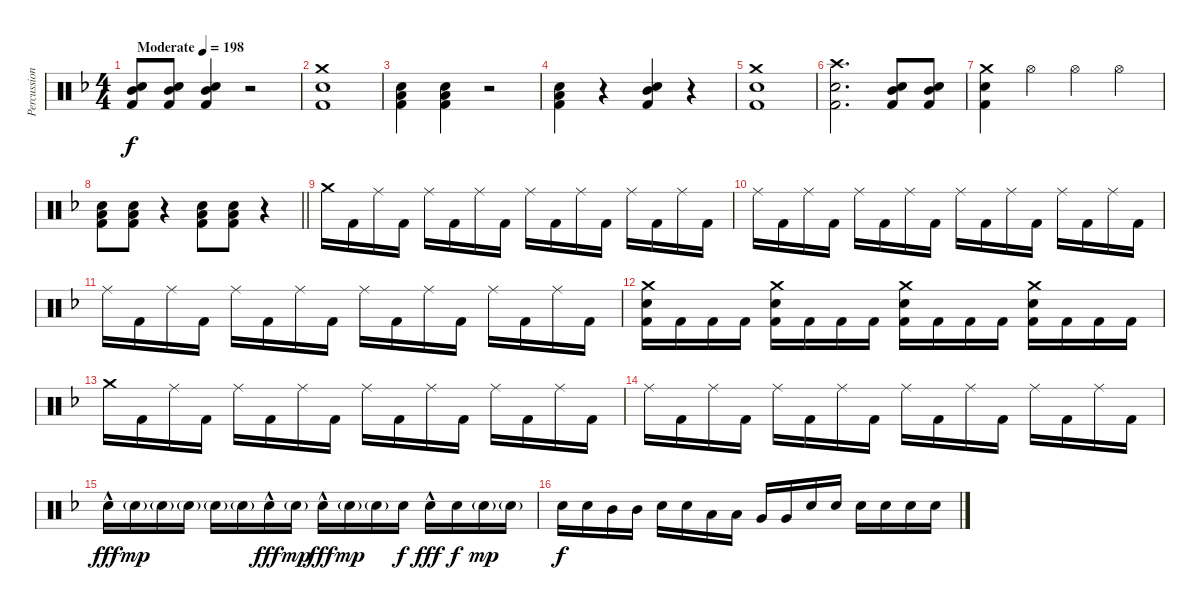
\track ("Percussion" "Percussion") {instrument percussion}
\staff {score}
\articulation defaults
\ts (4 4)
\tempo (198 "Moderate")
\clef neutral
\ks dminor
("Mid Tom (hit)" "Snare (hit) 2" "Kick (hit) 2").8{dy f} ("Mid Tom (hit)" "Snare (hit) 2" "Kick (hit) 2").8 ("Mid Tom (hit)" "Snare (hit) 2" "Kick (hit) 2").4 r.2 |
("Crash medium (hit)" "Snare (hit) 2" "Kick (hit) 2").1 |
("Low Tom (hit)" "Snare (hit) 2" "Kick (hit) 2").4 ("Low Tom (hit)" "Snare (hit) 2" "Kick (hit) 2").4 r.2 |
("Low Tom (hit)" "Snare (hit) 2" "Kick (hit) 2").4 r.4 ("Mid Tom (hit)" "Snare (hit) 2" "Kick (hit) 2").4 r.4 |
("Crash medium (hit)" "Snare (hit) 2" "Kick (hit) 2").1 |
("Crash high (hit)" "Snare (hit) 2" "Kick (hit) 2").2{d} ("Mid Tom (hit)" "Snare (hit) 2" "Kick (hit) 2").8 ("Mid Tom (hit)" "Snare (hit) 2" "Kick (hit) 2").8 |
("Crash medium (hit)" "Snare (hit) 2" "Kick (hit) 2").4 "Hi-Hat (open)".4 "Hi-Hat (open)".4 "Hi-Hat (open)".4 |
\barLineRight lightlight
("Low Tom (hit)" "Snare (hit) 2" "Kick (hit) 2").8 ("Low Tom (hit)" "Snare (hit) 2" "Kick (hit) 2").8 r.4 ("Low Tom (hit)" "Snare (hit) 2" "Kick (hit) 2").8 ("Low Tom (hit)" "Snare (hit) 2" "Kick (hit) 2").8 r.4 |
"Crash medium (hit)".16 "Kick (hit) 2".16 "Ride (middle)".16 "Kick (hit) 2".16 "Ride (middle)".16 "Kick (hit) 2".16 "Ride (middle)".16 "Kick (hit) 2".16 "Ride (middle)".16 "Kick (hit) 2".16 "Ride (middle)".16 "Kick (hit) 2".16 "Ride (middle)".16 "Kick (hit) 2".16 "Ride (middle)".16 "Kick (hit) 2".16 |
"Ride (middle)".16 "Kick (hit) 2".16 "Ride (middle)".16 "Kick (hit) 2".16 "Ride (middle)".16 "Kick (hit) 2".16 "Ride (middle)".16 "Kick (hit) 2".16 "Ride (middle)".16 "Kick (hit) 2".16 "Ride (middle)".16 "Kick (hit) 2".16 "Ride (middle)".16 "Kick (hit) 2".16 "Ride (middle)".16 "Kick (hit) 2".16 |
"Ride (middle)".16 "Kick (hit) 2".16 "Ride (middle)".16 "Kick (hit) 2".16 "Ride (middle)".16 "Kick (hit) 2".16 "Ride (middle)".16 "Kick (hit) 2".16 "Ride (middle)".16 "Kick (hit) 2".16 "Ride (middle)".16 "Kick (hit) 2".16 "Ride (middle)".16 "Kick (hit) 2".16 "Ride (middle)".16 "Kick (hit) 2".16 |
("Crash medium (hit)" "Snare (hit) 2" "Kick (hit) 2").16 "Kick (hit) 2".16 "Kick (hit) 2".16 "Kick (hit) 2".16 ("Crash medium (hit)" "Snare (hit) 2" "Kick (hit) 2").16 "Kick (hit) 2".16 "Kick (hit) 2".16 "Kick (hit) 2".16 ("Crash medium (hit)" "Snare (hit) 2" "Kick (hit) 2").16 "Kick (hit) 2".16 "Kick (hit) 2".16 "Kick (hit) 2".16 ("Crash medium (hit)" "Snare (hit) 2" "Kick (hit) 2").16 "Kick (hit) 2".16 "Kick (hit) 2".16 "Kick (hit) 2".16 |
"Crash medium (hit)".16 "Kick (hit) 2".16 "Ride (middle)".16 "Kick (hit) 2".16 "Ride (middle)".16 "Kick (hit) 2".16 "Ride (middle)".16 "Kick (hit) 2".16 "Ride (middle)".16 "Kick (hit) 2".16 "Ride (middle)".16 "Kick (hit) 2".16 "Ride (middle)".16 "Kick (hit) 2".16 "Ride (middle)".16 "Kick (hit) 2".16 |
"Ride (middle)".16 "Kick (hit) 2".16 "Ride (middle)".16 "Kick (hit) 2".16 "Ride (middle)".16 "Kick (hit) 2".16 "Ride (middle)".16 "Kick (hit) 2".16 "Ride (middle)".16 "Kick (hit) 2".16 "Ride (middle)".16 "Kick (hit) 2".16 "Ride (middle)".16 "Kick (hit) 2".16 "Ride (middle)".16 "Kick (hit) 2".16 |
"Snare (hit) 2"{hac}.16{dy fff} "Snare (hit) 2"{g}.16{dy mp} "Snare (hit) 2"{g}.16 "Snare (hit) 2"{g}.16 "Snare (hit) 2"{g}.16 "Snare (hit) 2"{g}.16 "Snare (hit) 2"{hac}.16{dy fff} "Snare (hit) 2"{g}.16{dy mp} "Snare (hit) 2"{hac}.16{dy fff} "Snare (hit) 2"{g}.16{dy mp} "Snare (hit) 2"{g}.16 "Snare (hit) 2".16{dy f} "Snare (hit) 2"{hac}.16{dy fff} "Snare (hit) 2".16{dy f} "Snare (hit) 2"{g}.16{dy mp} "Snare (hit) 2"{g}.16 |
"Snare (hit) 2".16{dy f} "Snare (hit) 2".16 "Mid Tom (hit)".16 "Mid Tom (hit)".16 "Snare (hit) 2".16 "Snare (hit) 2".16 "Low Tom (hit)".16 "Low Tom (hit)".16 "Very Low Tom (hit)".16 "Very Low Tom (hit)".16 "Snare (hit) 2".16 "Snare (hit) 2".16 "Snare (hit) 2".16 "Snare (hit) 2".16 "Snare (hit) 2".16 "Snare (hit) 2".16
